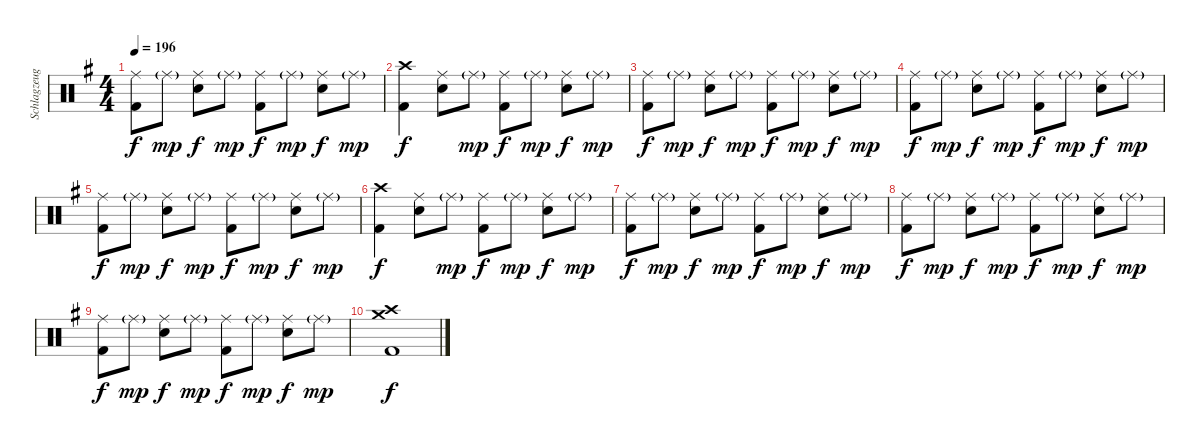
\track ("Schlagzeug" "Schlagzeug") {instrument percussion}
\staff {score}
\articulation defaults
\ts (4 4)
\tempo 196
\clef neutral
\ks g
("Ride (middle)" "Kick (hit) 2").8{dy f} "Ride (middle)"{g}.8{dy mp} ("Ride (middle)" "Snare (hit) 2").8{dy f} "Ride (middle)"{g}.8{dy mp} ("Ride (middle)" "Kick (hit) 2").8{dy f} "Ride (middle)"{g}.8{dy mp} ("Ride (middle)" "Snare (hit) 2").8{dy f} "Ride (middle)"{g}.8{dy mp} |
("Crash high (hit)" "Kick (hit) 2").4{dy f} ("Ride (middle)" "Snare (hit) 2").8 "Ride (middle)"{g}.8{dy mp} ("Ride (middle)" "Kick (hit) 2").8{dy f} "Ride (middle)"{g}.8{dy mp} ("Ride (middle)" "Snare (hit) 2").8{dy f} "Ride (middle)"{g}.8{dy mp} |
("Ride (middle)" "Kick (hit) 2").8{dy f} "Ride (middle)"{g}.8{dy mp} ("Ride (middle)" "Snare (hit) 2").8{dy f} "Ride (middle)"{g}.8{dy mp} ("Ride (middle)" "Kick (hit) 2").8{dy f} "Ride (middle)"{g}.8{dy mp} ("Ride (middle)" "Snare (hit) 2").8{dy f} "Ride (middle)"{g}.8{dy mp} |
("Ride (middle)" "Kick (hit) 2").8{dy f} "Ride (middle)"{g}.8{dy mp} ("Ride (middle)" "Snare (hit) 2").8{dy f} "Ride (middle)"{g}.8{dy mp} ("Ride (middle)" "Kick (hit) 2").8{dy f} "Ride (middle)"{g}.8{dy mp} ("Ride (middle)" "Snare (hit) 2").8{dy f} "Ride (middle)"{g}.8{dy mp} |
("Ride (middle)" "Kick (hit) 2").8{dy f} "Ride (middle)"{g}.8{dy mp} ("Ride (middle)" "Snare (hit) 2").8{dy f} "Ride (middle)"{g}.8{dy mp} ("Ride (middle)" "Kick (hit) 2").8{dy f} "Ride (middle)"{g}.8{dy mp} ("Ride (middle)" "Snare (hit) 2").8{dy f} "Ride (middle)"{g}.8{dy mp} |
("Crash high (hit)" "Kick (hit) 2").4{dy f} ("Ride (middle)" "Snare (hit) 2").8 "Ride (middle)"{g}.8{dy mp} ("Ride (middle)" "Kick (hit) 2").8{dy f} "Ride (middle)"{g}.8{dy mp} ("Ride (middle)" "Snare (hit) 2").8{dy f} "Ride (middle)"{g}.8{dy mp} |
("Ride (middle)" "Kick (hit) 2").8{dy f} "Ride (middle)"{g}.8{dy mp} ("Ride (middle)" "Snare (hit) 2").8{dy f} "Ride (middle)"{g}.8{dy mp} ("Ride (middle)" "Kick (hit) 2").8{dy f} "Ride (middle)"{g}.8{dy mp} ("Ride (middle)" "Snare (hit) 2").8{dy f} "Ride (middle)"{g}.8{dy mp} |
("Ride (middle)" "Kick (hit) 2").8{dy f} "Ride (middle)"{g}.8{dy mp} ("Ride (middle)" "Snare (hit) 2").8{dy f} "Ride (middle)"{g}.8{dy mp} ("Ride (middle)" "Kick (hit) 2").8{dy f} "Ride (middle)"{g}.8{dy mp} ("Ride (middle)" "Snare (hit) 2").8{dy f} "Ride (middle)"{g}.8{dy mp} |
("Ride (middle)" "Kick (hit) 2").8{dy f} "Ride (middle)"{g}.8{dy mp} ("Ride (middle)" "Snare (hit) 2").8{dy f} "Ride (middle)"{g}.8{dy mp} ("Ride (middle)" "Kick (hit) 2").8{dy f} "Ride (middle)"{g}.8{dy mp} ("Ride (middle)" "Snare (hit) 2").8{dy f} "Ride (middle)"{g}.8{dy mp} |
("Crash high (hit)" "Crash medium (hit)" "Kick (hit) 2").1{dy f}
